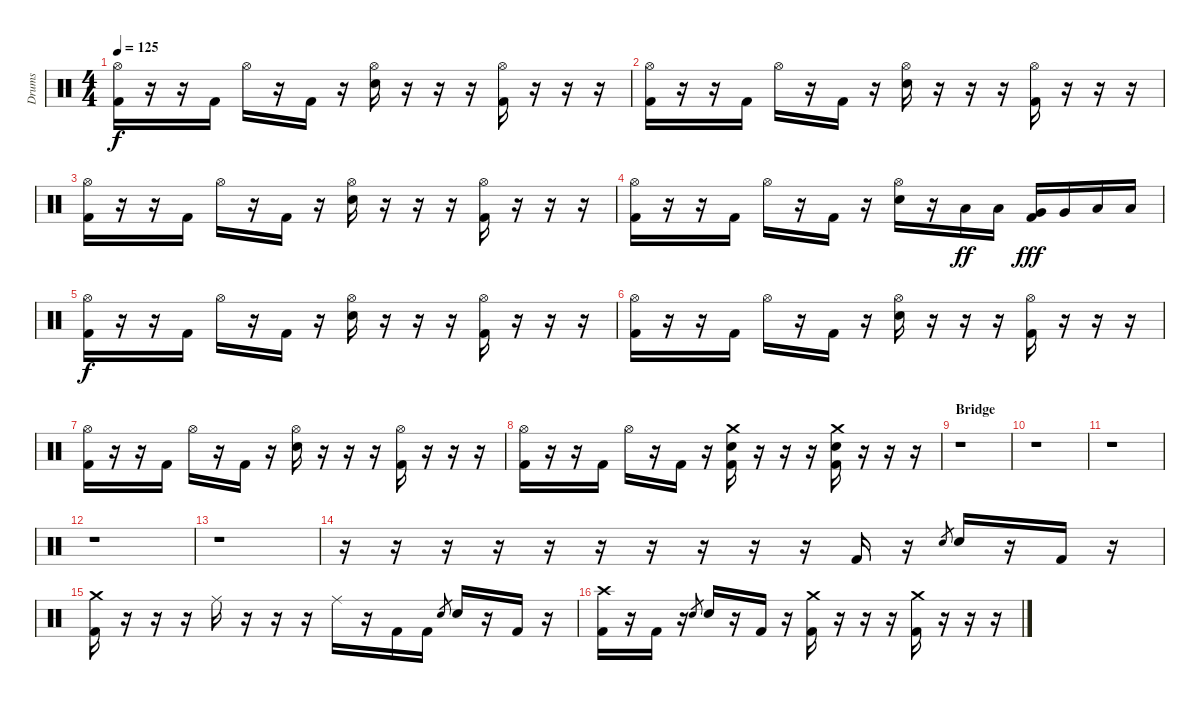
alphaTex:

\track ("Drums" "Drums") {instrument percussion}
\staff {score}
\articulation defaults
\ts (4 4)
\tempo 125
\clef neutral
\ks c
("Hi-Hat (open)" "Kick (hit) 2").16{dy f} r.16 r.16 "Kick (hit) 2".16 "Hi-Hat (open)".16 r.16 "Kick (hit) 2".16 r.16 ("Hi-Hat (open)" "Electric Snare (hit)").16 r.16 r.16 r.16 ("Hi-Hat (open)" "Kick (hit) 2").16 r.16 r.16 r.16 |
("Hi-Hat (open)" "Kick (hit) 2").16 r.16 r.16 "Kick (hit) 2".16 "Hi-Hat (open)".16 r.16 "Kick (hit) 2".16 r.16 ("Hi-Hat (open)" "Electric Snare (hit)").16 r.16 r.16 r.16 ("Hi-Hat (open)" "Kick (hit) 2").16 r.16 r.16 r.16 |
("Hi-Hat (open)" "Kick (hit) 2").16 r.16 r.16 "Kick (hit) 2".16 "Hi-Hat (open)".16 r.16 "Kick (hit) 2".16 r.16 ("Hi-Hat (open)" "Electric Snare (hit)").16 r.16 r.16 r.16 ("Hi-Hat (open)" "Kick (hit) 2").16 r.16 r.16 r.16 |
("Hi-Hat (open)" "Kick (hit) 2").16 r.16 r.16 "Kick (hit) 2".16 "Hi-Hat (open)".16 r.16 "Kick (hit) 2".16 r.16 ("Hi-Hat (open)" "Electric Snare (hit)").16 r.16 "Low Tom (hit)".16{dy ff} "Low Tom (hit)".16 ("Very Low Tom (hit)" "Kick (hit) 2").16{dy fff} "Very Low Tom (hit)".16 "Low Floor Tom (hit)".16 "Low Floor Tom (hit)".16 |
("Hi-Hat (open)" "Kick (hit) 2").16{dy f} r.16 r.16 "Kick (hit) 2".16 "Hi-Hat (open)".16 r.16 "Kick (hit) 2".16 r.16 ("Hi-Hat (open)" "Electric Snare (hit)").16 r.16 r.16 r.16 ("Hi-Hat (open)" "Kick (hit) 2").16 r.16 r.16 r.16 |
("Hi-Hat (open)" "Kick (hit) 2").16 r.16 r.16 "Kick (hit) 2".16 "Hi-Hat (open)".16 r.16 "Kick (hit) 2".16 r.16 ("Hi-Hat (open)" "Electric Snare (hit)").16 r.16 r.16 r.16 ("Hi-Hat (open)" "Kick (hit) 2").16 r.16 r.16 r.16 |
("Hi-Hat (open)" "Kick (hit) 2").16 r.16 r.16 "Kick (hit) 2".16 "Hi-Hat (open)".16 r.16 "Kick (hit) 2".16 r.16 ("Hi-Hat (open)" "Electric Snare (hit)").16 r.16 r.16 r.16 ("Hi-Hat (open)" "Kick (hit) 2").16 r.16 r.16 r.16 |
("Hi-Hat (open)" "Kick (hit) 2").16 r.16 r.16 "Kick (hit) 2".16 "Hi-Hat (open)".16 r.16 "Kick (hit) 2".16 r.16 ("Crash medium (hit)" "Electric Snare (hit)" "Kick (hit) 2").16 r.16 r.16 r.16 ("Crash medium (hit)" "Electric Snare (hit)" "Kick (hit) 2").16 r.16 r.16 r.16 |
\section ("" "Bridge")
r.1 |
r.1 |
r.1 |
r.1 |
r.1 |
r.16 r.16 r.16 r.16 r.16 r.16 r.16 r.16 r.16 r.16 "Kick (hit) 2".16 r.16 "Electric Snare (hit)".8{gr} "Electric Snare (hit)".16 r.16 "Kick (hit) 2".16 r.16 |
("Crash medium (hit)" "Kick (hit) 2").16 r.16 r.16 r.16 "Ride (middle)".16 r.16 r.16 r.16 "Ride (middle)".16 r.16 "Kick (hit) 2".16 "Kick (hit) 2".16 "Electric Snare (hit)".8{gr} "Electric Snare (hit)".16 r.16 "Kick (hit) 2".16 r.16 |
("Crash high (hit)" "Kick (hit) 2").16 r.16 "Kick (hit) 2".16 r.16 "Electric Snare (hit)".8{gr} "Electric Snare (hit)".16 r.16 "Kick (hit) 2".16 r.16 ("Crash medium (hit)" "Kick (hit) 2").16 r.16 r.16 r.16 ("Crash medium (hit)" "Kick (hit) 2").16 r.16 r.16 r.16
